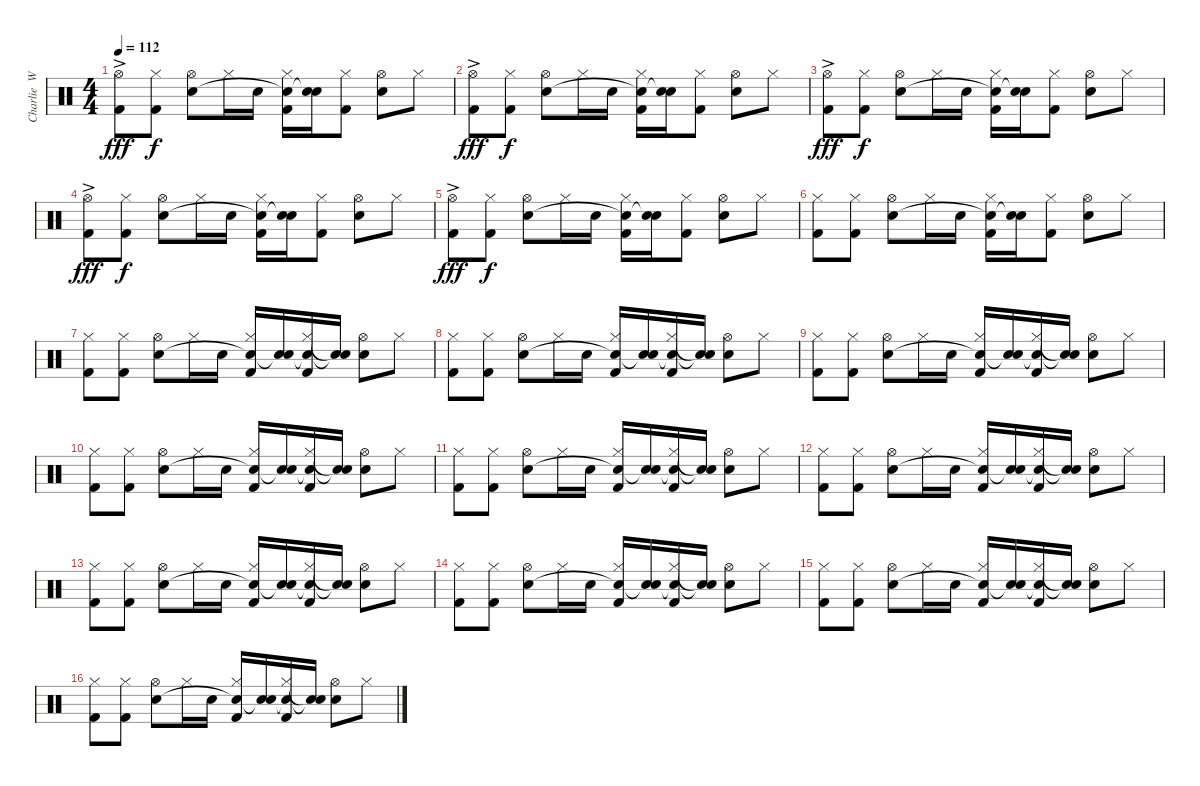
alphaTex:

\track ("Charlie  Watts" "Charlie  W") {instrument percussion}
\staff {score}
\articulation defaults
\ts (4 4)
\tempo 112
\clef neutral
\ks c
("Hi-Hat (open)"{ac} "Kick (hit) 2"{ac}).8{dy fff} ("Hi-Hat (closed)" "Kick (hit) 2").8{dy f} ("Hi-Hat (open)" "Snare (hit) 2").8 "Hi-Hat (closed)".16 "Snare (hit) 2".16 ("Hi-Hat (closed)" "Snare (hit)"{t} "Kick (hit) 2").16 ("Snare (hit) 2" "Snare (hit)"{t}).16 ("Hi-Hat (closed)" "Kick (hit) 2").8 ("Hi-Hat (open)" "Snare (hit) 2").8 "Hi-Hat (closed)".8 |
("Hi-Hat (open)"{ac} "Kick (hit) 2"{ac}).8{dy fff} ("Hi-Hat (closed)" "Kick (hit) 2").8{dy f} ("Hi-Hat (open)" "Snare (hit) 2").8 "Hi-Hat (closed)".16 "Snare (hit) 2".16 ("Hi-Hat (closed)" "Snare (hit)"{t} "Kick (hit) 2").16 ("Snare (hit) 2" "Snare (hit)"{t}).16 ("Hi-Hat (closed)" "Kick (hit) 2").8 ("Hi-Hat (open)" "Snare (hit) 2").8 "Hi-Hat (closed)".8 |
("Hi-Hat (open)"{ac} "Kick (hit) 2"{ac}).8{dy fff} ("Hi-Hat (closed)" "Kick (hit) 2").8{dy f} ("Hi-Hat (open)" "Snare (hit) 2").8 "Hi-Hat (closed)".16 "Snare (hit) 2".16 ("Hi-Hat (closed)" "Snare (hit)"{t} "Kick (hit) 2").16 ("Snare (hit) 2" "Snare (hit)"{t}).16 ("Hi-Hat (closed)" "Kick (hit) 2").8 ("Hi-Hat (open)" "Snare (hit) 2").8 "Hi-Hat (closed)".8 |
("Hi-Hat (open)"{ac} "Kick (hit) 2"{ac}).8{dy fff} ("Hi-Hat (closed)" "Kick (hit) 2").8{dy f} ("Hi-Hat (open)" "Snare (hit) 2").8 "Hi-Hat (closed)".16 "Snare (hit) 2".16 ("Hi-Hat (closed)" "Snare (hit)"{t} "Kick (hit) 2").16 ("Snare (hit) 2" "Snare (hit)"{t}).16 ("Hi-Hat (closed)" "Kick (hit) 2").8 ("Hi-Hat (open)" "Snare (hit) 2").8 "Hi-Hat (closed)".8 |
("Hi-Hat (open)"{ac} "Kick (hit) 2"{ac}).8{dy fff} ("Hi-Hat (closed)" "Kick (hit) 2").8{dy f} ("Hi-Hat (open)" "Snare (hit) 2").8 "Hi-Hat (closed)".16 "Snare (hit) 2".16 ("Hi-Hat (closed)" "Snare (hit)"{t} "Kick (hit) 2").16 ("Snare (hit) 2" "Snare (hit)"{t}).16 ("Hi-Hat (closed)" "Kick (hit) 2").8 ("Hi-Hat (open)" "Snare (hit) 2").8 "Hi-Hat (closed)".8 |
("Hi-Hat (closed)" "Kick (hit) 2").8 ("Hi-Hat (closed)" "Kick (hit) 2").8 ("Hi-Hat (open)" "Snare (hit) 2").8 "Hi-Hat (closed)".16 "Snare (hit) 2".16 ("Hi-Hat (closed)" "Snare (hit)"{t} "Kick (hit) 2").16 ("Snare (hit) 2" "Snare (hit)"{t}).16 ("Hi-Hat (closed)" "Kick (hit) 2").8 ("Hi-Hat (open)" "Snare (hit) 2").8 "Hi-Hat (closed)".8 |
("Hi-Hat (closed)" "Kick (hit) 2").8 ("Hi-Hat (closed)" "Kick (hit) 2").8 ("Hi-Hat (open)" "Snare (hit) 2").8 "Hi-Hat (closed)".16 "Snare (hit) 2".16 ("Hi-Hat (closed)" "Snare (hit)"{t} "Kick (hit) 2").16 ("Snare (hit) 2" "Snare (hit)"{t}).16 ("Hi-Hat (closed)" "Snare (hit)"{t} "Kick (hit) 2").16 ("Snare (hit)"{t} "Snare (hit)"{t}).16 ("Hi-Hat (open)" "Snare (hit) 2").8 "Hi-Hat (closed)".8 |
("Hi-Hat (closed)" "Kick (hit) 2").8 ("Hi-Hat (closed)" "Kick (hit) 2").8 ("Hi-Hat (open)" "Snare (hit) 2").8 "Hi-Hat (closed)".16 "Snare (hit) 2".16 ("Hi-Hat (closed)" "Snare (hit)"{t} "Kick (hit) 2").16 ("Snare (hit) 2" "Snare (hit)"{t}).16 ("Hi-Hat (closed)" "Snare (hit)"{t} "Kick (hit) 2").16 ("Snare (hit)"{t} "Snare (hit)"{t}).16 ("Hi-Hat (open)" "Snare (hit) 2").8 "Hi-Hat (closed)".8 |
("Hi-Hat (closed)" "Kick (hit) 2").8 ("Hi-Hat (closed)" "Kick (hit) 2").8 ("Hi-Hat (open)" "Snare (hit) 2").8 "Hi-Hat (closed)".16 "Snare (hit) 2".16 ("Hi-Hat (closed)" "Snare (hit)"{t} "Kick (hit) 2").16 ("Snare (hit) 2" "Snare (hit)"{t}).16 ("Hi-Hat (closed)" "Snare (hit)"{t} "Kick (hit) 2").16 ("Snare (hit)"{t} "Snare (hit)"{t}).16 ("Hi-Hat (open)" "Snare (hit) 2").8 "Hi-Hat (closed)".8 |
("Hi-Hat (closed)" "Kick (hit) 2").8 ("Hi-Hat (closed)" "Kick (hit) 2").8 ("Hi-Hat (open)" "Snare (hit) 2").8 "Hi-Hat (closed)".16 "Snare (hit) 2".16 ("Hi-Hat (closed)" "Snare (hit)"{t} "Kick (hit) 2").16 ("Snare (hit) 2" "Snare (hit)"{t}).16 ("Hi-Hat (closed)" "Snare (hit)"{t} "Kick (hit) 2").16 ("Snare (hit)"{t} "Snare (hit)"{t}).16 ("Hi-Hat (open)" "Snare (hit) 2").8 "Hi-Hat (closed)".8 |
("Hi-Hat (closed)" "Kick (hit) 2").8 ("Hi-Hat (closed)" "Kick (hit) 2").8 ("Hi-Hat (open)" "Snare (hit) 2").8 "Hi-Hat (closed)".16 "Snare (hit) 2".16 ("Hi-Hat (closed)" "Snare (hit)"{t} "Kick (hit) 2").16 ("Snare (hit) 2" "Snare (hit)"{t}).16 ("Hi-Hat (closed)" "Snare (hit)"{t} "Kick (hit) 2").16 ("Snare (hit)"{t} "Snare (hit)"{t}).16 ("Hi-Hat (open)" "Snare (hit) 2").8 "Hi-Hat (closed)".8 |
("Hi-Hat (closed)" "Kick (hit) 2").8 ("Hi-Hat (closed)" "Kick (hit) 2").8 ("Hi-Hat (open)" "Snare (hit) 2").8 "Hi-Hat (closed)".16 "Snare (hit) 2".16 ("Hi-Hat (closed)" "Snare (hit)"{t} "Kick (hit) 2").16 ("Snare (hit) 2" "Snare (hit)"{t}).16 ("Hi-Hat (closed)" "Snare (hit)"{t} "Kick (hit) 2").16 ("Snare (hit)"{t} "Snare (hit)"{t}).16 ("Hi-Hat (open)" "Snare (hit) 2").8 "Hi-Hat (closed)".8 |
("Hi-Hat (closed)" "Kick (hit) 2").8 ("Hi-Hat (closed)" "Kick (hit) 2").8 ("Hi-Hat (open)" "Snare (hit) 2").8 "Hi-Hat (closed)".16 "Snare (hit) 2".16 ("Hi-Hat (closed)" "Snare (hit)"{t} "Kick (hit) 2").16 ("Snare (hit) 2" "Snare (hit)"{t}).16 ("Hi-Hat (closed)" "Snare (hit)"{t} "Kick (hit) 2").16 ("Snare (hit)"{t} "Snare (hit)"{t}).16 ("Hi-Hat (open)" "Snare (hit) 2").8 "Hi-Hat (closed)".8 |
("Hi-Hat (closed)" "Kick (hit) 2").8 ("Hi-Hat (closed)" "Kick (hit) 2").8 ("Hi-Hat (open)" "Snare (hit) 2").8 "Hi-Hat (closed)".16 "Snare (hit) 2".16 ("Hi-Hat (closed)" "Snare (hit)"{t} "Kick (hit) 2").16 ("Snare (hit) 2" "Snare (hit)"{t}).16 ("Hi-Hat (closed)" "Snare (hit)"{t} "Kick (hit) 2").16 ("Snare (hit)"{t} "Snare (hit)"{t}).16 ("Hi-Hat (open)" "Snare (hit) 2").8 "Hi-Hat (closed)".8 |
("Hi-Hat (closed)" "Kick (hit) 2").8 ("Hi-Hat (closed)" "Kick (hit) 2").8 ("Hi-Hat (open)" "Snare (hit) 2").8 "Hi-Hat (closed)".16 "Snare (hit) 2".16 ("Hi-Hat (closed)" "Snare (hit)"{t} "Kick (hit) 2").16 ("Snare (hit) 2" "Snare (hit)"{t}).16 ("Hi-Hat (closed)" "Snare (hit)"{t} "Kick (hit) 2").16 ("Snare (hit)"{t} "Snare (hit)"{t}).16 ("Hi-Hat (open)" "Snare (hit) 2").8 "Hi-Hat (closed)".8 |
("Hi-Hat (closed)" "Kick (hit) 2").8 ("Hi-Hat (closed)" "Kick (hit) 2").8 ("Hi-Hat (open)" "Snare (hit) 2").8 "Hi-Hat (closed)".16 "Snare (hit) 2".16 ("Hi-Hat (closed)" "Snare (hit)"{t} "Kick (hit) 2").16 ("Snare (hit) 2" "Snare (hit)"{t}).16 ("Hi-Hat (closed)" "Snare (hit)"{t} "Kick (hit) 2").16 ("Snare (hit)"{t} "Snare (hit)"{t}).16 ("Hi-Hat (open)" "Snare (hit) 2").8 "Hi-Hat (closed)".8
